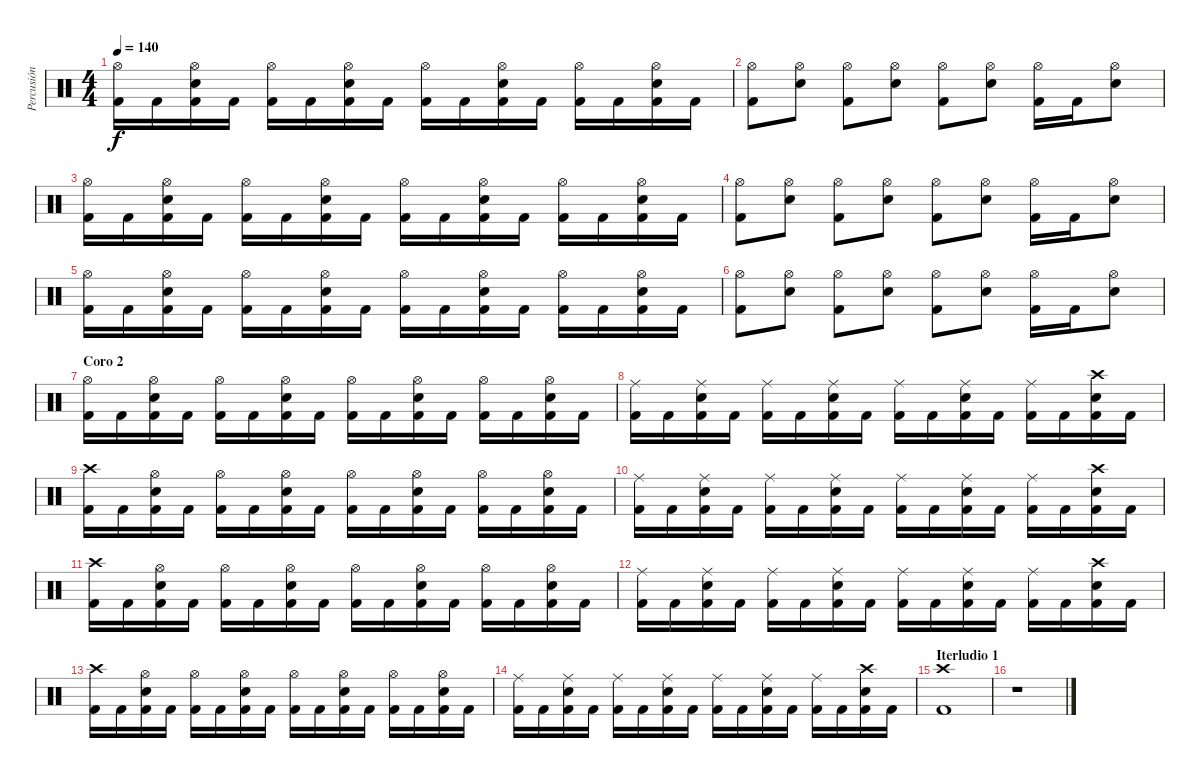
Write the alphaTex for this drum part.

\track ("Percusión" "Percusión") {instrument percussion}
\staff {score}
\articulation defaults
\ts (4 4)
\tempo 140
\clef neutral
\ks c
("Hi-Hat (open)" "Kick (hit) 2").16{dy f} "Kick (hit) 2".16 ("Hi-Hat (open)" "Snare (hit) 2" "Kick (hit) 2").16 "Kick (hit) 2".16 ("Hi-Hat (open)" "Kick (hit) 2").16 "Kick (hit) 2".16 ("Hi-Hat (open)" "Snare (hit) 2" "Kick (hit) 2").16 "Kick (hit) 2".16 ("Hi-Hat (open)" "Kick (hit) 2").16 "Kick (hit) 2".16 ("Hi-Hat (open)" "Snare (hit) 2" "Kick (hit) 2").16 "Kick (hit) 2".16 ("Hi-Hat (open)" "Kick (hit) 2").16 "Kick (hit) 2".16 ("Hi-Hat (open)" "Snare (hit) 2" "Kick (hit) 2").16 "Kick (hit) 2".16 |
("Hi-Hat (open)" "Kick (hit) 2").8 ("Hi-Hat (open)" "Snare (hit) 2").8 ("Hi-Hat (open)" "Kick (hit) 2").8 ("Hi-Hat (open)" "Snare (hit) 2").8 ("Hi-Hat (open)" "Kick (hit) 2").8 ("Hi-Hat (open)" "Snare (hit) 2").8 ("Hi-Hat (open)" "Kick (hit) 2").16 "Kick (hit) 2".16 ("Hi-Hat (open)" "Snare (hit) 2").8 |
("Hi-Hat (open)" "Kick (hit) 2").16 "Kick (hit) 2".16 ("Hi-Hat (open)" "Snare (hit) 2" "Kick (hit) 2").16 "Kick (hit) 2".16 ("Hi-Hat (open)" "Kick (hit) 2").16 "Kick (hit) 2".16 ("Hi-Hat (open)" "Snare (hit) 2" "Kick (hit) 2").16 "Kick (hit) 2".16 ("Hi-Hat (open)" "Kick (hit) 2").16 "Kick (hit) 2".16 ("Hi-Hat (open)" "Snare (hit) 2" "Kick (hit) 2").16 "Kick (hit) 2".16 ("Hi-Hat (open)" "Kick (hit) 2").16 "Kick (hit) 2".16 ("Hi-Hat (open)" "Snare (hit) 2" "Kick (hit) 2").16 "Kick (hit) 2".16 |
("Hi-Hat (open)" "Kick (hit) 2").8 ("Hi-Hat (open)" "Snare (hit) 2").8 ("Hi-Hat (open)" "Kick (hit) 2").8 ("Hi-Hat (open)" "Snare (hit) 2").8 ("Hi-Hat (open)" "Kick (hit) 2").8 ("Hi-Hat (open)" "Snare (hit) 2").8 ("Hi-Hat (open)" "Kick (hit) 2").16 "Kick (hit) 2".16 ("Hi-Hat (open)" "Snare (hit) 2").8 |
("Hi-Hat (open)" "Kick (hit) 2").16 "Kick (hit) 2".16 ("Hi-Hat (open)" "Snare (hit) 2" "Kick (hit) 2").16 "Kick (hit) 2".16 ("Hi-Hat (open)" "Kick (hit) 2").16 "Kick (hit) 2".16 ("Hi-Hat (open)" "Snare (hit) 2" "Kick (hit) 2").16 "Kick (hit) 2".16 ("Hi-Hat (open)" "Kick (hit) 2").16 "Kick (hit) 2".16 ("Hi-Hat (open)" "Snare (hit) 2" "Kick (hit) 2").16 "Kick (hit) 2".16 ("Hi-Hat (open)" "Kick (hit) 2").16 "Kick (hit) 2".16 ("Hi-Hat (open)" "Snare (hit) 2" "Kick (hit) 2").16 "Kick (hit) 2".16 |
("Hi-Hat (open)" "Kick (hit) 2").8 ("Hi-Hat (open)" "Snare (hit) 2").8 ("Hi-Hat (open)" "Kick (hit) 2").8 ("Hi-Hat (open)" "Snare (hit) 2").8 ("Hi-Hat (open)" "Kick (hit) 2").8 ("Hi-Hat (open)" "Snare (hit) 2").8 ("Hi-Hat (open)" "Kick (hit) 2").16 "Kick (hit) 2".16 ("Hi-Hat (open)" "Snare (hit) 2").8 |
\section ("" "Coro 2")
("Hi-Hat (open)" "Kick (hit) 2").16 "Kick (hit) 2".16 ("Hi-Hat (open)" "Snare (hit) 2" "Kick (hit) 2").16 "Kick (hit) 2".16 ("Hi-Hat (open)" "Kick (hit) 2").16 "Kick (hit) 2".16 ("Hi-Hat (open)" "Snare (hit) 2" "Kick (hit) 2").16 "Kick (hit) 2".16 ("Hi-Hat (open)" "Kick (hit) 2").16 "Kick (hit) 2".16 ("Hi-Hat (open)" "Snare (hit) 2" "Kick (hit) 2").16 "Kick (hit) 2".16 ("Hi-Hat (open)" "Kick (hit) 2").16 "Kick (hit) 2".16 ("Hi-Hat (open)" "Snare (hit) 2" "Kick (hit) 2").16 "Kick (hit) 2".16 |
("Ride (middle)" "Kick (hit) 2").16 "Kick (hit) 2".16 ("Ride (middle)" "Snare (hit) 2" "Kick (hit) 2").16 "Kick (hit) 2".16 ("Ride (middle)" "Kick (hit) 2").16 "Kick (hit) 2".16 ("Ride (middle)" "Snare (hit) 2" "Kick (hit) 2").16 "Kick (hit) 2".16 ("Ride (middle)" "Kick (hit) 2").16 "Kick (hit) 2".16 ("Ride (middle)" "Snare (hit) 2" "Kick (hit) 2").16 "Kick (hit) 2".16 ("Ride (middle)" "Kick (hit) 2").16 "Kick (hit) 2".16 ("Crash high (hit)" "Snare (hit) 2" "Kick (hit) 2").16 "Kick (hit) 2".16 |
("Crash high (hit)" "Kick (hit) 2").16 "Kick (hit) 2".16 ("Hi-Hat (open)" "Snare (hit) 2" "Kick (hit) 2").16 "Kick (hit) 2".16 ("Hi-Hat (open)" "Kick (hit) 2").16 "Kick (hit) 2".16 ("Hi-Hat (open)" "Snare (hit) 2" "Kick (hit) 2").16 "Kick (hit) 2".16 ("Hi-Hat (open)" "Kick (hit) 2").16 "Kick (hit) 2".16 ("Hi-Hat (open)" "Snare (hit) 2" "Kick (hit) 2").16 "Kick (hit) 2".16 ("Hi-Hat (open)" "Kick (hit) 2").16 "Kick (hit) 2".16 ("Hi-Hat (open)" "Snare (hit) 2" "Kick (hit) 2").16 "Kick (hit) 2".16 |
("Ride (middle)" "Kick (hit) 2").16 "Kick (hit) 2".16 ("Ride (middle)" "Snare (hit) 2" "Kick (hit) 2").16 "Kick (hit) 2".16 ("Ride (middle)" "Kick (hit) 2").16 "Kick (hit) 2".16 ("Ride (middle)" "Snare (hit) 2" "Kick (hit) 2").16 "Kick (hit) 2".16 ("Ride (middle)" "Kick (hit) 2").16 "Kick (hit) 2".16 ("Ride (middle)" "Snare (hit) 2" "Kick (hit) 2").16 "Kick (hit) 2".16 ("Ride (middle)" "Kick (hit) 2").16 "Kick (hit) 2".16 ("Crash high (hit)" "Snare (hit) 2" "Kick (hit) 2").16 "Kick (hit) 2".16 |
("Crash high (hit)" "Kick (hit) 2").16 "Kick (hit) 2".16 ("Hi-Hat (open)" "Snare (hit) 2" "Kick (hit) 2").16 "Kick (hit) 2".16 ("Hi-Hat (open)" "Kick (hit) 2").16 "Kick (hit) 2".16 ("Hi-Hat (open)" "Snare (hit) 2" "Kick (hit) 2").16 "Kick (hit) 2".16 ("Hi-Hat (open)" "Kick (hit) 2").16 "Kick (hit) 2".16 ("Hi-Hat (open)" "Snare (hit) 2" "Kick (hit) 2").16 "Kick (hit) 2".16 ("Hi-Hat (open)" "Kick (hit) 2").16 "Kick (hit) 2".16 ("Hi-Hat (open)" "Snare (hit) 2" "Kick (hit) 2").16 "Kick (hit) 2".16 |
("Ride (middle)" "Kick (hit) 2").16 "Kick (hit) 2".16 ("Ride (middle)" "Snare (hit) 2" "Kick (hit) 2").16 "Kick (hit) 2".16 ("Ride (middle)" "Kick (hit) 2").16 "Kick (hit) 2".16 ("Ride (middle)" "Snare (hit) 2" "Kick (hit) 2").16 "Kick (hit) 2".16 ("Ride (middle)" "Kick (hit) 2").16 "Kick (hit) 2".16 ("Ride (middle)" "Snare (hit) 2" "Kick (hit) 2").16 "Kick (hit) 2".16 ("Ride (middle)" "Kick (hit) 2").16 "Kick (hit) 2".16 ("Crash high (hit)" "Snare (hit) 2" "Kick (hit) 2").16 "Kick (hit) 2".16 |
("Crash high (hit)" "Kick (hit) 2").16 "Kick (hit) 2".16 ("Hi-Hat (open)" "Snare (hit) 2" "Kick (hit) 2").16 "Kick (hit) 2".16 ("Hi-Hat (open)" "Kick (hit) 2").16 "Kick (hit) 2".16 ("Hi-Hat (open)" "Snare (hit) 2" "Kick (hit) 2").16 "Kick (hit) 2".16 ("Hi-Hat (open)" "Kick (hit) 2").16 "Kick (hit) 2".16 ("Hi-Hat (open)" "Snare (hit) 2" "Kick (hit) 2").16 "Kick (hit) 2".16 ("Hi-Hat (open)" "Kick (hit) 2").16 "Kick (hit) 2".16 ("Hi-Hat (open)" "Snare (hit) 2" "Kick (hit) 2").16 "Kick (hit) 2".16 |
("Ride (middle)" "Kick (hit) 2").16 "Kick (hit) 2".16 ("Ride (middle)" "Snare (hit) 2" "Kick (hit) 2").16 "Kick (hit) 2".16 ("Ride (middle)" "Kick (hit) 2").16 "Kick (hit) 2".16 ("Ride (middle)" "Snare (hit) 2" "Kick (hit) 2").16 "Kick (hit) 2".16 ("Ride (middle)" "Kick (hit) 2").16 "Kick (hit) 2".16 ("Ride (middle)" "Snare (hit) 2" "Kick (hit) 2").16 "Kick (hit) 2".16 ("Ride (middle)" "Kick (hit) 2").16 "Kick (hit) 2".16 ("Crash high (hit)" "Snare (hit) 2" "Kick (hit) 2").16 "Kick (hit) 2".16 |
\section ("" "Iterludio 1")
("Crash high (hit)" "Kick (hit) 2").1 |
r.1
